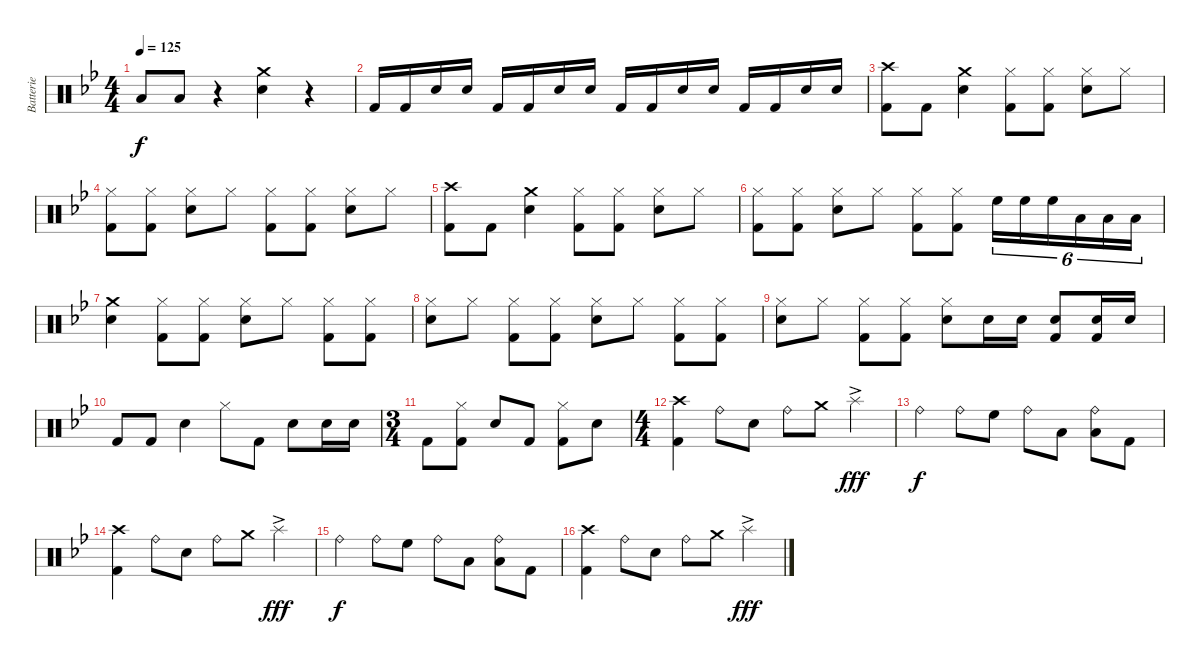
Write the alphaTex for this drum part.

\track ("Batterie" "Batterie") {instrument percussion}
\staff {score}
\articulation defaults
\ts (4 4)
\tempo 125
\clef neutral
\ks bb "Low Floor Tom (hit)".8{dy f} "Low Floor Tom (hit)".8
r.4 ("Crash medium (hit)" "Electric Snare (hit)").4 r.4 |
"Kick (hit) 2".16 "Kick (hit) 2".16 "Electric Snare (hit)".16 "Electric Snare (hit)".16 "Kick (hit) 2".16 "Kick (hit) 2".16 "Electric Snare (hit)".16 "Electric Snare (hit)".16 "Kick (hit) 2".16 "Kick (hit) 2".16 "Electric Snare (hit)".16 "Electric Snare (hit)".16 "Kick (hit) 2".16 "Kick (hit) 2".16 "Electric Snare (hit)".16 "Electric Snare (hit)".16 |
("Crash high (hit)" "Kick (hit) 2").8 "Kick (hit) 2".8 ("Crash medium (hit)" "Electric Snare (hit)").4 ("Hi-Hat (closed)" "Kick (hit) 2").8 ("Hi-Hat (closed)" "Kick (hit) 2").8 ("Hi-Hat (closed)" "Electric Snare (hit)").8 "Hi-Hat (closed)".8 |
("Hi-Hat (closed)" "Kick (hit) 2").8 ("Hi-Hat (closed)" "Kick (hit) 2").8 ("Hi-Hat (closed)" "Electric Snare (hit)").8 "Hi-Hat (closed)".8 ("Hi-Hat (closed)" "Kick (hit) 2").8 ("Hi-Hat (closed)" "Kick (hit) 2").8 ("Hi-Hat (closed)" "Electric Snare (hit)").8 "Hi-Hat (closed)".8 |
("Crash high (hit)" "Kick (hit) 2").8 "Kick (hit) 2".8 ("Crash medium (hit)" "Electric Snare (hit)").4 ("Hi-Hat (closed)" "Kick (hit) 2").8 ("Hi-Hat (closed)" "Kick (hit) 2").8 ("Hi-Hat (closed)" "Electric Snare (hit)").8 "Hi-Hat (closed)".8 |
("Hi-Hat (closed)" "Kick (hit) 2").8 ("Hi-Hat (closed)" "Kick (hit) 2").8 ("Hi-Hat (closed)" "Electric Snare (hit)").8 "Hi-Hat (closed)".8 ("Hi-Hat (closed)" "Kick (hit) 2").8 ("Hi-Hat (closed)" "Kick (hit) 2").8 "High Floor Tom (hit)".16{tu (6 4)} "High Floor Tom (hit)".16{tu (6 4)} "High Floor Tom (hit)".16{tu (6 4)} "Low Tom (hit)".16{tu (6 4)} "Low Tom (hit)".16{tu (6 4)} "Low Tom (hit)".16{tu (6 4)} |
("Crash medium (hit)" "Electric Snare (hit)").4 ("Hi-Hat (closed)" "Kick (hit) 2").8 ("Hi-Hat (closed)" "Kick (hit) 2").8 ("Hi-Hat (closed)" "Electric Snare (hit)").8 "Hi-Hat (closed)".8 ("Hi-Hat (closed)" "Kick (hit) 2").8 ("Hi-Hat (closed)" "Kick (hit) 2").8 |
("Hi-Hat (closed)" "Electric Snare (hit)").8 "Hi-Hat (closed)".8 ("Hi-Hat (closed)" "Kick (hit) 2").8 ("Hi-Hat (closed)" "Kick (hit) 2").8 ("Hi-Hat (closed)" "Electric Snare (hit)").8 "Hi-Hat (closed)".8 ("Hi-Hat (closed)" "Kick (hit) 2").8 ("Hi-Hat (closed)" "Kick (hit) 2").8 |
("Hi-Hat (closed)" "Electric Snare (hit)").8 "Hi-Hat (closed)".8 ("Hi-Hat (closed)" "Kick (hit) 2").8 ("Hi-Hat (closed)" "Kick (hit) 2").8 ("Hi-Hat (closed)" "Electric Snare (hit)").8 "Electric Snare (hit)".16 "Electric Snare (hit)".16 ("Electric Snare (hit)" "Kick (hit) 2").8 ("Electric Snare (hit)" "Kick (hit) 2").16 "Electric Snare (hit)".16 |
"Kick (hit) 2".8 "Kick (hit) 2".8 "Electric Snare (hit)".4 "Hi-Hat (closed)".8 "Kick (hit) 2".8 "Electric Snare (hit)".8 "Electric Snare (hit)".16 "Electric Snare (hit)".16 |
\ts (3 4)
"Kick (hit) 2".8 ("Hi-Hat (closed)" "Kick (hit) 2").8 "Electric Snare (hit)".8 "Kick (hit) 2".8 ("Hi-Hat (closed)" "Kick (hit) 2").8 "Electric Snare (hit)".8 |
\ts (4 4)
("Crash high (hit)" "Kick (hit) 2").4 "Ride (bell)".8 "Electric Snare (hit)".8 "Ride (bell)".8 "Crash medium (hit)".8 "Splash (hit)"{ac}.4{dy fff} |
"Ride (bell)".4{dy f} "Ride (bell)".8 "High Floor Tom (hit)".8 "Ride (bell)".8 "Low Tom (hit)".8 ("Ride (bell)" "Low Tom (hit)").8 "Kick (hit) 2".8 |
("Crash high (hit)" "Kick (hit) 2").4 "Ride (bell)".8 "Electric Snare (hit)".8 "Ride (bell)".8 "Crash medium (hit)".8 "Splash (hit)"{ac}.4{dy fff} |
"Ride (bell)".4{dy f} "Ride (bell)".8 "High Floor Tom (hit)".8 "Ride (bell)".8 "Low Tom (hit)".8 ("Ride (bell)" "Low Tom (hit)").8 "Kick (hit) 2".8 |
("Crash high (hit)" "Kick (hit) 2").4 "Ride (bell)".8 "Electric Snare (hit)".8 "Ride (bell)".8 "Crash medium (hit)".8 "Splash (hit)"{ac}.4{dy fff}
